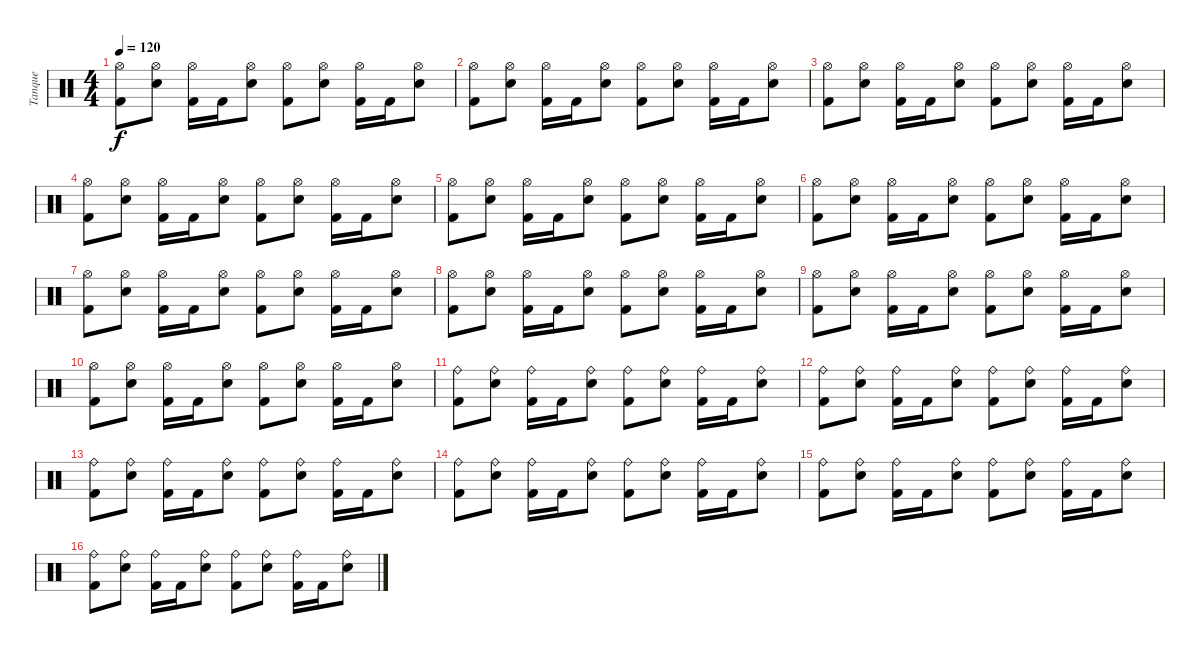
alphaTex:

\track ("Tanque" "Tanque") {instrument percussion}
\staff {score}
\articulation defaults
\ts (4 4)
\tempo 120
\clef neutral
\ks c
("Kick (hit) 2" "Hi-Hat (open)").8{dy f} ("Snare (hit) 2" "Hi-Hat (open)").8 ("Kick (hit) 2" "Hi-Hat (open)").16 "Kick (hit) 2".16 ("Snare (hit) 2" "Hi-Hat (open)").8 ("Kick (hit) 2" "Hi-Hat (open)").8 ("Snare (hit) 2" "Hi-Hat (open)").8 ("Kick (hit) 2" "Hi-Hat (open)").16 "Kick (hit) 2".16 ("Snare (hit) 2" "Hi-Hat (open)").8 |
("Kick (hit) 2" "Hi-Hat (open)").8 ("Snare (hit) 2" "Hi-Hat (open)").8 ("Kick (hit) 2" "Hi-Hat (open)").16 "Kick (hit) 2".16 ("Snare (hit) 2" "Hi-Hat (open)").8 ("Kick (hit) 2" "Hi-Hat (open)").8 ("Snare (hit) 2" "Hi-Hat (open)").8 ("Kick (hit) 2" "Hi-Hat (open)").16 "Kick (hit) 2".16 ("Snare (hit) 2" "Hi-Hat (open)").8 |
("Kick (hit) 2" "Hi-Hat (open)").8 ("Snare (hit) 2" "Hi-Hat (open)").8 ("Kick (hit) 2" "Hi-Hat (open)").16 "Kick (hit) 2".16 ("Snare (hit) 2" "Hi-Hat (open)").8 ("Kick (hit) 2" "Hi-Hat (open)").8 ("Snare (hit) 2" "Hi-Hat (open)").8 ("Kick (hit) 2" "Hi-Hat (open)").16 "Kick (hit) 2".16 ("Snare (hit) 2" "Hi-Hat (open)").8 |
("Kick (hit) 2" "Hi-Hat (open)").8 ("Snare (hit) 2" "Hi-Hat (open)").8 ("Kick (hit) 2" "Hi-Hat (open)").16 "Kick (hit) 2".16 ("Snare (hit) 2" "Hi-Hat (open)").8 ("Kick (hit) 2" "Hi-Hat (open)").8 ("Snare (hit) 2" "Hi-Hat (open)").8 ("Kick (hit) 2" "Hi-Hat (open)").16 "Kick (hit) 2".16 ("Snare (hit) 2" "Hi-Hat (open)").8 |
("Kick (hit) 2" "Hi-Hat (open)").8 ("Snare (hit) 2" "Hi-Hat (open)").8 ("Kick (hit) 2" "Hi-Hat (open)").16 "Kick (hit) 2".16 ("Snare (hit) 2" "Hi-Hat (open)").8 ("Kick (hit) 2" "Hi-Hat (open)").8 ("Snare (hit) 2" "Hi-Hat (open)").8 ("Kick (hit) 2" "Hi-Hat (open)").16 "Kick (hit) 2".16 ("Snare (hit) 2" "Hi-Hat (open)").8 |
("Kick (hit) 2" "Hi-Hat (open)").8 ("Snare (hit) 2" "Hi-Hat (open)").8 ("Kick (hit) 2" "Hi-Hat (open)").16 "Kick (hit) 2".16 ("Snare (hit) 2" "Hi-Hat (open)").8 ("Kick (hit) 2" "Hi-Hat (open)").8 ("Snare (hit) 2" "Hi-Hat (open)").8 ("Kick (hit) 2" "Hi-Hat (open)").16 "Kick (hit) 2".16 ("Snare (hit) 2" "Hi-Hat (open)").8 |
("Kick (hit) 2" "Hi-Hat (open)").8 ("Snare (hit) 2" "Hi-Hat (open)").8 ("Kick (hit) 2" "Hi-Hat (open)").16 "Kick (hit) 2".16 ("Snare (hit) 2" "Hi-Hat (open)").8 ("Kick (hit) 2" "Hi-Hat (open)").8 ("Snare (hit) 2" "Hi-Hat (open)").8 ("Kick (hit) 2" "Hi-Hat (open)").16 "Kick (hit) 2".16 ("Snare (hit) 2" "Hi-Hat (open)").8 |
("Kick (hit) 2" "Hi-Hat (open)").8 ("Snare (hit) 2" "Hi-Hat (open)").8 ("Kick (hit) 2" "Hi-Hat (open)").16 "Kick (hit) 2".16 ("Snare (hit) 2" "Hi-Hat (open)").8 ("Kick (hit) 2" "Hi-Hat (open)").8 ("Snare (hit) 2" "Hi-Hat (open)").8 ("Kick (hit) 2" "Hi-Hat (open)").16 "Kick (hit) 2".16 ("Snare (hit) 2" "Hi-Hat (open)").8 |
("Kick (hit) 2" "Hi-Hat (open)").8 ("Snare (hit) 2" "Hi-Hat (open)").8 ("Kick (hit) 2" "Hi-Hat (open)").16 "Kick (hit) 2".16 ("Snare (hit) 2" "Hi-Hat (open)").8 ("Kick (hit) 2" "Hi-Hat (open)").8 ("Snare (hit) 2" "Hi-Hat (open)").8 ("Kick (hit) 2" "Hi-Hat (open)").16 "Kick (hit) 2".16 ("Snare (hit) 2" "Hi-Hat (open)").8 |
("Kick (hit) 2" "Hi-Hat (open)").8 ("Snare (hit) 2" "Hi-Hat (open)").8 ("Kick (hit) 2" "Hi-Hat (open)").16 "Kick (hit) 2".16 ("Snare (hit) 2" "Hi-Hat (open)").8 ("Kick (hit) 2" "Hi-Hat (open)").8 ("Snare (hit) 2" "Hi-Hat (open)").8 ("Kick (hit) 2" "Hi-Hat (open)").16 "Kick (hit) 2".16 ("Snare (hit) 2" "Hi-Hat (open)").8 |
("Kick (hit) 2" "Ride (bell)").8 ("Snare (hit) 2" "Ride (bell)").8 ("Kick (hit) 2" "Ride (bell)").16 "Kick (hit) 2".16 ("Snare (hit) 2" "Ride (bell)").8 ("Kick (hit) 2" "Ride (bell)").8 ("Snare (hit) 2" "Ride (bell)").8 ("Kick (hit) 2" "Ride (bell)").16 "Kick (hit) 2".16 ("Snare (hit) 2" "Ride (bell)").8 |
("Kick (hit) 2" "Ride (bell)").8 ("Snare (hit) 2" "Ride (bell)").8 ("Kick (hit) 2" "Ride (bell)").16 "Kick (hit) 2".16 ("Snare (hit) 2" "Ride (bell)").8 ("Kick (hit) 2" "Ride (bell)").8 ("Snare (hit) 2" "Ride (bell)").8 ("Kick (hit) 2" "Ride (bell)").16 "Kick (hit) 2".16 ("Snare (hit) 2" "Ride (bell)").8 |
("Kick (hit) 2" "Ride (bell)").8 ("Snare (hit) 2" "Ride (bell)").8 ("Kick (hit) 2" "Ride (bell)").16 "Kick (hit) 2".16 ("Snare (hit) 2" "Ride (bell)").8 ("Kick (hit) 2" "Ride (bell)").8 ("Snare (hit) 2" "Ride (bell)").8 ("Kick (hit) 2" "Ride (bell)").16 "Kick (hit) 2".16 ("Snare (hit) 2" "Ride (bell)").8 |
("Kick (hit) 2" "Ride (bell)").8 ("Snare (hit) 2" "Ride (bell)").8 ("Kick (hit) 2" "Ride (bell)").16 "Kick (hit) 2".16 ("Snare (hit) 2" "Ride (bell)").8 ("Kick (hit) 2" "Ride (bell)").8 ("Snare (hit) 2" "Ride (bell)").8 ("Kick (hit) 2" "Ride (bell)").16 "Kick (hit) 2".16 ("Snare (hit) 2" "Ride (bell)").8 |
("Kick (hit) 2" "Ride (bell)").8 ("Snare (hit) 2" "Ride (bell)").8 ("Kick (hit) 2" "Ride (bell)").16 "Kick (hit) 2".16 ("Snare (hit) 2" "Ride (bell)").8 ("Kick (hit) 2" "Ride (bell)").8 ("Snare (hit) 2" "Ride (bell)").8 ("Kick (hit) 2" "Ride (bell)").16 "Kick (hit) 2".16 ("Snare (hit) 2" "Ride (bell)").8 |
("Kick (hit) 2" "Ride (bell)").8 ("Snare (hit) 2" "Ride (bell)").8 ("Kick (hit) 2" "Ride (bell)").16 "Kick (hit) 2".16 ("Snare (hit) 2" "Ride (bell)").8 ("Kick (hit) 2" "Ride (bell)").8 ("Snare (hit) 2" "Ride (bell)").8 ("Kick (hit) 2" "Ride (bell)").16 "Kick (hit) 2".16 ("Snare (hit) 2" "Ride (bell)").8
